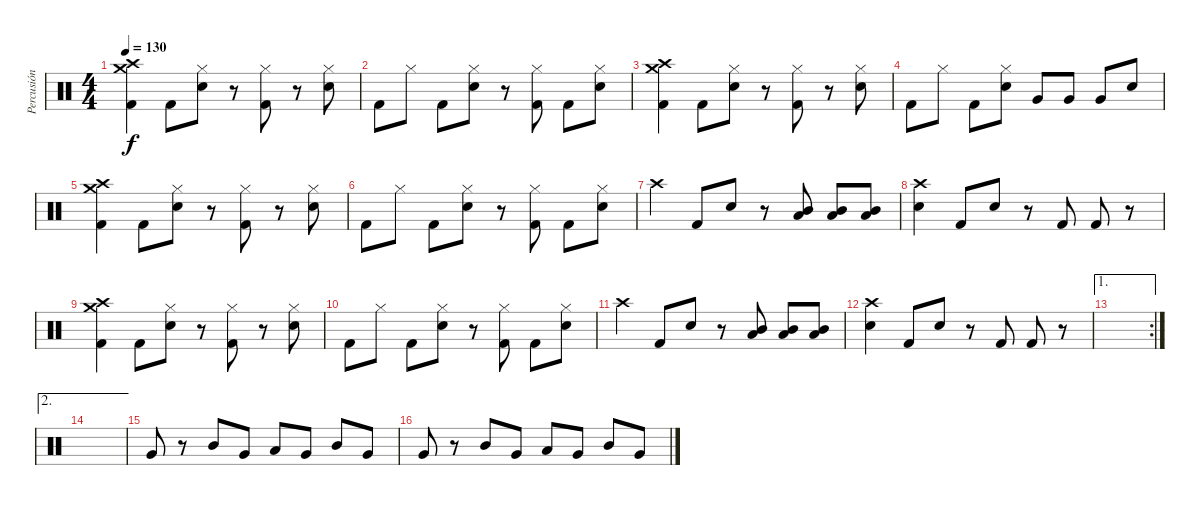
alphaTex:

\track ("Percusión" "Percusión") {instrument percussion}
\staff {score}
\articulation defaults
\ts (4 4)
\tempo 130
\clef neutral
\ks c
("Crash high (hit)" "Crash medium (hit)" "Kick (hit) 2").4{dy f} "Kick (hit) 2".8 ("Snare (hit) 2" "Hi-Hat (closed)").8 r.8 ("Kick (hit) 2" "Hi-Hat (closed)").8 r.8 ("Snare (hit) 2" "Hi-Hat (closed)").8 |
"Kick (hit) 2".8 "Hi-Hat (closed)".8 "Kick (hit) 2".8 ("Snare (hit) 2" "Hi-Hat (closed)").8 r.8 ("Kick (hit) 2" "Hi-Hat (closed)").8 "Kick (hit) 2".8 ("Snare (hit) 2" "Hi-Hat (closed)").8 |
("Crash high (hit)" "Crash medium (hit)" "Kick (hit) 2").4 "Kick (hit) 2".8 ("Snare (hit) 2" "Hi-Hat (closed)").8 r.8 ("Kick (hit) 2" "Hi-Hat (closed)").8 r.8 ("Snare (hit) 2" "Hi-Hat (closed)").8 |
"Kick (hit) 2".8 "Hi-Hat (closed)".8 "Kick (hit) 2".8 ("Snare (hit) 2" "Hi-Hat (closed)").8 "Very Low Tom (hit)".8 "Very Low Tom (hit)".8 "Very Low Tom (hit)".8 "Snare (hit) 2".8 |
("Crash high (hit)" "Crash medium (hit)" "Kick (hit) 2").4 "Kick (hit) 2".8 ("Snare (hit) 2" "Hi-Hat (closed)").8 r.8 ("Kick (hit) 2" "Hi-Hat (closed)").8 r.8 ("Snare (hit) 2" "Hi-Hat (closed)").8 |
"Kick (hit) 2".8 "Hi-Hat (closed)".8 "Kick (hit) 2".8 ("Snare (hit) 2" "Hi-Hat (closed)").8 r.8 ("Kick (hit) 2" "Hi-Hat (closed)").8 "Kick (hit) 2".8 ("Snare (hit) 2" "Hi-Hat (closed)").8 |
"Crash high (hit)".4 "Kick (hit) 2".8 "Snare (hit) 2".8 r.8 ("Low Tom (hit)" "Mid Tom (hit)").8 ("Low Tom (hit)" "Mid Tom (hit)").8 ("Low Tom (hit)" "Mid Tom (hit)").8 |
("Electric Snare (hit)" "Crash high (hit)").4 "Kick (hit) 2".8 "Snare (hit) 2".8 r.8 "Kick (hit) 2".8 "Kick (hit) 2".8 r.8 |
("Crash high (hit)" "Crash medium (hit)" "Kick (hit) 2").4 "Kick (hit) 2".8 ("Snare (hit) 2" "Hi-Hat (closed)").8 r.8 ("Kick (hit) 2" "Hi-Hat (closed)").8 r.8 ("Snare (hit) 2" "Hi-Hat (closed)").8 |
"Kick (hit) 2".8 "Hi-Hat (closed)".8 "Kick (hit) 2".8 ("Snare (hit) 2" "Hi-Hat (closed)").8 r.8 ("Kick (hit) 2" "Hi-Hat (closed)").8 "Kick (hit) 2".8 ("Snare (hit) 2" "Hi-Hat (closed)").8 |
"Crash high (hit)".4 "Kick (hit) 2".8 "Snare (hit) 2".8 r.8 ("Low Tom (hit)" "Mid Tom (hit)").8 ("Low Tom (hit)" "Mid Tom (hit)").8 ("Low Tom (hit)" "Mid Tom (hit)").8 |
("Electric Snare (hit)" "Crash high (hit)").4 "Kick (hit) 2".8 "Snare (hit) 2".8 r.8 "Kick (hit) 2".8 "Kick (hit) 2".8 r.8 |
\ae 1
\rc 2
|
\ae 2
|
"Very Low Tom (hit)".8 r.8 "Mid Tom (hit)".8 "Very Low Tom (hit)".8 "Low Floor Tom (hit)".8 "Very Low Tom (hit)".8 "Mid Tom (hit)".8 "Very Low Tom (hit)".8 |
"Very Low Tom (hit)".8 r.8 "Mid Tom (hit)".8 "Very Low Tom (hit)".8 "Low Floor Tom (hit)".8 "Very Low Tom (hit)".8 "Mid Tom (hit)".8 "Very Low Tom (hit)".8
